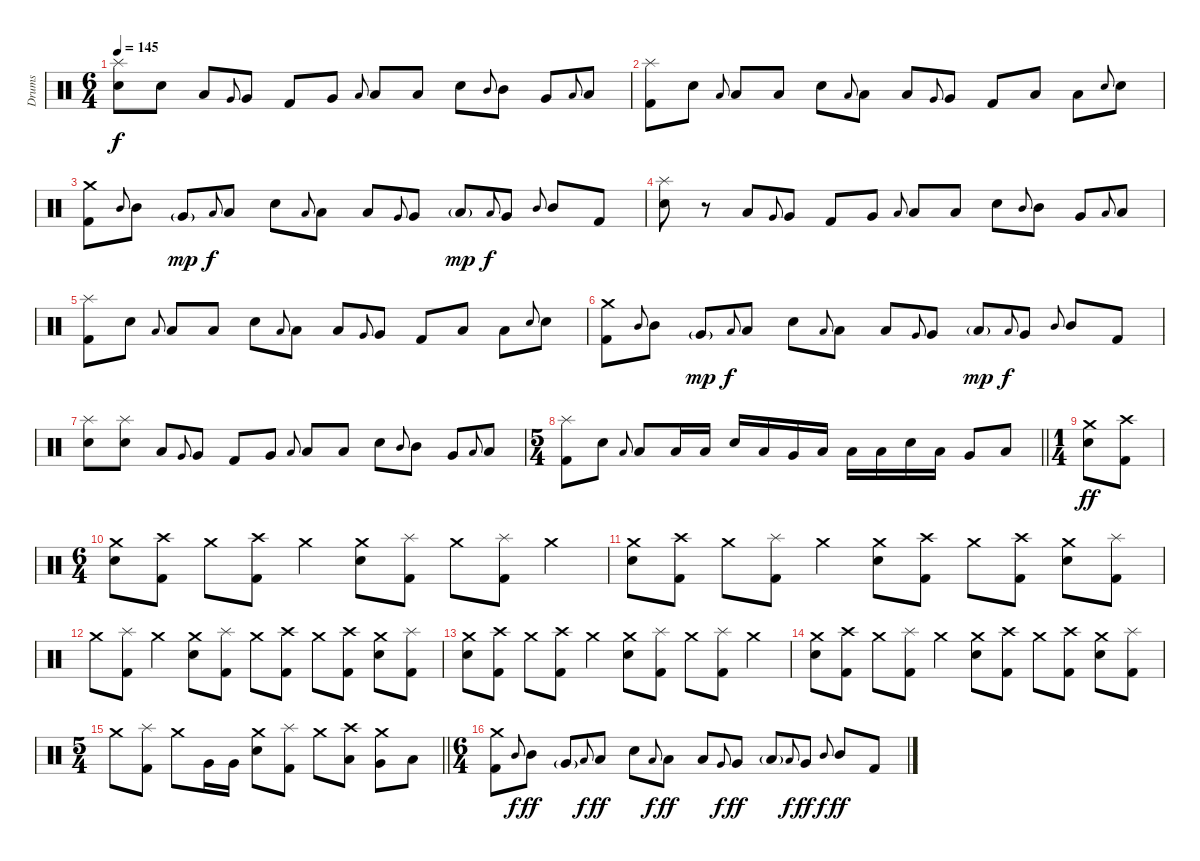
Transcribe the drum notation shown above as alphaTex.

\track ("Drums" "Drums") {instrument percussion}
\staff {score}
\articulation defaults
\ts (6 4)
\tempo 145
\clef neutral
\ks c
("Splash (hit)" "Electric Snare (hit)").8{dy f} "Electric Snare (hit)".8 "Low Floor Tom (hit)".8 "Very Low Tom (hit)".8{gr onbeat} "Very Low Tom (hit)".8 "Kick (hit) 2".8 "Very Low Tom (hit)".8 "Low Tom (hit)".8{gr onbeat} "Low Tom (hit)".8 "Low Floor Tom (hit)".8 "Electric Snare (hit)".8 "Mid Tom (hit)".8{gr onbeat} "Mid Tom (hit)".8 "Very Low Tom (hit)".8 "Low Tom (hit)".8{gr onbeat} "Low Tom (hit)".8 |
("Splash (hit)" "Kick (hit) 2").8 "Electric Snare (hit)".8 "Low Tom (hit)".8{gr onbeat} "Low Tom (hit)".8 "Low Floor Tom (hit)".8 "Electric Snare (hit)".8 "Low Tom (hit)".8{gr onbeat} "Low Tom (hit)".8 "Low Floor Tom (hit)".8 "Very Low Tom (hit)".8{gr onbeat} "Very Low Tom (hit)".8 "Kick (hit) 2".8 "Low Tom (hit)".8 "Low Tom (hit)".8 "Electric Snare (hit)".8{gr onbeat} "Electric Snare (hit)".8 |
("Crash medium (hit)" "Kick (hit) 2").8 "Mid Tom (hit)".8{gr onbeat} "Mid Tom (hit)".8 "Very Low Tom (hit)"{g}.8{dy mp} "Low Tom (hit)".8{gr onbeat dy f} "Low Tom (hit)".8 "Electric Snare (hit)".8 "Low Tom (hit)".8{gr onbeat} "Low Tom (hit)".8 "Low Floor Tom (hit)".8 "Very Low Tom (hit)".8{gr onbeat} "Very Low Tom (hit)".8 "Low Floor Tom (hit)"{g}.8{dy mp} "Low Tom (hit)".8{gr onbeat dy f} "Very Low Tom (hit)".8 "Mid Tom (hit)".8{gr onbeat} "Mid Tom (hit)".8 "Kick (hit) 2".8 |
("Splash (hit)" "Electric Snare (hit)").8 r.8 "Low Floor Tom (hit)".8 "Very Low Tom (hit)".8{gr onbeat} "Very Low Tom (hit)".8 "Kick (hit) 2".8 "Very Low Tom (hit)".8 "Low Tom (hit)".8{gr onbeat} "Low Tom (hit)".8 "Low Floor Tom (hit)".8 "Electric Snare (hit)".8 "Mid Tom (hit)".8{gr onbeat} "Mid Tom (hit)".8 "Very Low Tom (hit)".8 "Low Tom (hit)".8{gr onbeat} "Low Tom (hit)".8 |
("Splash (hit)" "Kick (hit) 2").8 "Electric Snare (hit)".8 "Low Tom (hit)".8{gr onbeat} "Low Tom (hit)".8 "Low Floor Tom (hit)".8 "Electric Snare (hit)".8 "Low Tom (hit)".8{gr onbeat} "Low Tom (hit)".8 "Low Floor Tom (hit)".8 "Very Low Tom (hit)".8{gr onbeat} "Very Low Tom (hit)".8 "Kick (hit) 2".8 "Low Tom (hit)".8 "Low Tom (hit)".8 "Electric Snare (hit)".8{gr onbeat} "Electric Snare (hit)".8 |
("Crash medium (hit)" "Kick (hit) 2").8 "Mid Tom (hit)".8{gr onbeat} "Mid Tom (hit)".8 "Very Low Tom (hit)"{g}.8{dy mp} "Low Tom (hit)".8{gr onbeat dy f} "Low Tom (hit)".8 "Electric Snare (hit)".8 "Low Tom (hit)".8{gr onbeat} "Low Tom (hit)".8 "Low Floor Tom (hit)".8 "Very Low Tom (hit)".8{gr onbeat} "Very Low Tom (hit)".8 "Low Floor Tom (hit)"{g}.8{dy mp} "Low Tom (hit)".8{gr onbeat dy f} "Very Low Tom (hit)".8 "Mid Tom (hit)".8{gr onbeat} "Mid Tom (hit)".8 "Kick (hit) 2".8 |
("Splash (hit)" "Electric Snare (hit)").8 ("Splash (hit)" "Electric Snare (hit)").8 "Low Floor Tom (hit)".8 "Very Low Tom (hit)".8{gr onbeat} "Very Low Tom (hit)".8 "Kick (hit) 2".8 "Very Low Tom (hit)".8 "Low Tom (hit)".8{gr onbeat} "Low Tom (hit)".8 "Low Floor Tom (hit)".8 "Electric Snare (hit)".8 "Mid Tom (hit)".8{gr onbeat} "Mid Tom (hit)".8 "Very Low Tom (hit)".8 "Low Tom (hit)".8{gr onbeat} "Low Tom (hit)".8 |
\ts (5 4)
\barLineRight lightlight
("Splash (hit)" "Kick (hit) 2").8 "Electric Snare (hit)".8 "Low Tom (hit)".8{gr onbeat} "Low Tom (hit)".8 "Low Floor Tom (hit)".16 "Low Floor Tom (hit)".16 "Electric Snare (hit)".16 "Low Tom (hit)".16 "Very Low Tom (hit)".16 "Low Floor Tom (hit)".16 "Low Tom (hit)".16 "Low Tom (hit)".16 "Electric Snare (hit)".16 "Low Tom (hit)".16 "Very Low Tom (hit)".8 "Low Floor Tom (hit)".8 |
\ts (1 4)
\section ("" "")
("Crash medium (hit)" "Electric Snare (hit)").8{dy ff} ("Crash high (hit)" "Kick (hit) 2").8 |
\ts (6 4)
("Crash medium (hit)" "Electric Snare (hit)").8 ("Crash high (hit)" "Kick (hit) 2").8 "Crash medium (hit)".8 ("Crash high (hit)" "Kick (hit) 2").8 "Crash medium (hit)".4 ("Crash medium (hit)" "Electric Snare (hit)").8 ("Splash (hit)" "Kick (hit) 2").8 "Crash medium (hit)".8 ("Splash (hit)" "Kick (hit) 2").8 "Crash medium (hit)".4 |
("Crash medium (hit)" "Electric Snare (hit)").8 ("Crash high (hit)" "Kick (hit) 2").8 "Crash medium (hit)".8 ("Splash (hit)" "Kick (hit) 2").8 "Crash medium (hit)".4 ("Crash medium (hit)" "Electric Snare (hit)").8 ("Crash high (hit)" "Kick (hit) 2").8 "Crash medium (hit)".8 ("Crash high (hit)" "Kick (hit) 2").8 ("Crash medium (hit)" "Electric Snare (hit)").8 ("Splash (hit)" "Kick (hit) 2").8 |
"Crash medium (hit)".8 ("Splash (hit)" "Kick (hit) 2").8 "Crash medium (hit)".4 ("Crash medium (hit)" "Electric Snare (hit)").8 ("Splash (hit)" "Kick (hit) 2").8 "Crash medium (hit)".8 ("Crash high (hit)" "Kick (hit) 2").8 "Crash medium (hit)".8 ("Crash high (hit)" "Kick (hit) 2").8 ("Crash medium (hit)" "Electric Snare (hit)").8 ("Splash (hit)" "Kick (hit) 2").8 |
("Crash medium (hit)" "Electric Snare (hit)").8 ("Crash high (hit)" "Kick (hit) 2").8 "Crash medium (hit)".8 ("Crash high (hit)" "Kick (hit) 2").8 "Crash medium (hit)".4 ("Crash medium (hit)" "Electric Snare (hit)").8 ("Splash (hit)" "Kick (hit) 2").8 "Crash medium (hit)".8 ("Splash (hit)" "Kick (hit) 2").8 "Crash medium (hit)".4 |
("Crash medium (hit)" "Electric Snare (hit)").8 ("Crash high (hit)" "Kick (hit) 2").8 "Crash medium (hit)".8 ("Splash (hit)" "Kick (hit) 2").8 "Crash medium (hit)".4 ("Crash medium (hit)" "Electric Snare (hit)").8 ("Crash high (hit)" "Kick (hit) 2").8 "Crash medium (hit)".8 ("Crash high (hit)" "Kick (hit) 2").8 ("Crash medium (hit)" "Electric Snare (hit)").8 ("Splash (hit)" "Kick (hit) 2").8 |
\ts (5 4)
\barLineRight lightlight "Crash medium (hit)".8
("Splash (hit)" "Kick (hit) 2").8 "Crash medium (hit)".8 "Very Low Tom (hit)".16 "Very Low Tom (hit)".16 ("Crash medium (hit)" "Electric Snare (hit)").8 ("Splash (hit)" "Kick (hit) 2").8 "Crash medium (hit)".8 ("Crash high (hit)" "Low Tom (hit)").8 ("Crash medium (hit)" "Very Low Tom (hit)").8 "Low Floor Tom (hit)".8 |
\ts (6 4)
\section ("" "")
("Crash medium (hit)" "Kick (hit) 2").8 "Mid Tom (hit)".8{gr onbeat dy f} "Mid Tom (hit)".8{dy ff} "Very Low Tom (hit)"{g}.8 "Low Tom (hit)".8{gr onbeat dy f} "Low Tom (hit)".8{dy ff} "Electric Snare (hit)".8 "Low Tom (hit)".8{gr onbeat dy f} "Low Tom (hit)".8{dy ff} "Low Floor Tom (hit)".8 "Very Low Tom (hit)".8{gr onbeat dy f} "Very Low Tom (hit)".8{dy ff} "Low Floor Tom (hit)"{g}.8 "Low Tom (hit)".8{gr onbeat dy f} "Very Low Tom (hit)".8{dy ff} "Mid Tom (hit)".8{gr onbeat dy f} "Mid Tom (hit)".8{dy ff} "Kick (hit) 2".8
